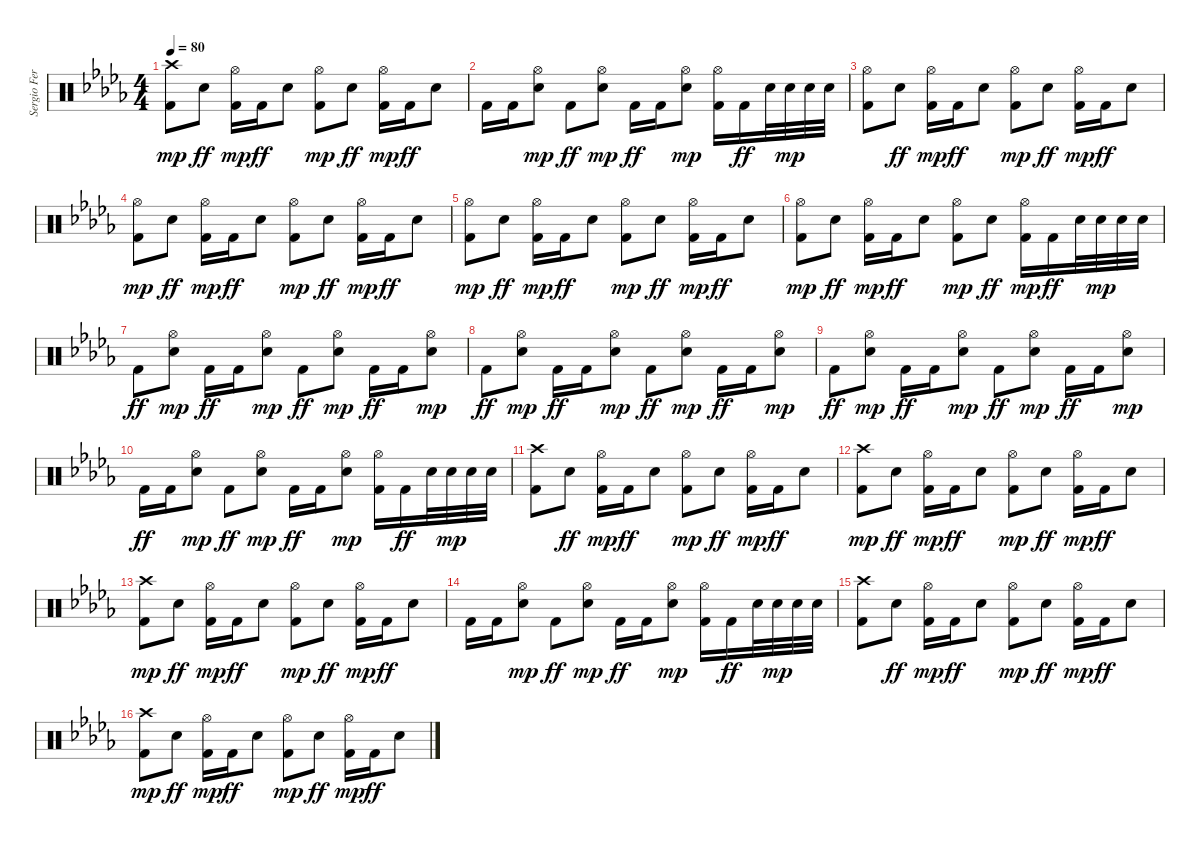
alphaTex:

\track ("Sergio Fernandez \"Taz\"" "Sergio Fer") {instrument percussion}
\staff {score}
\articulation defaults
\ts (4 4)
\tempo 80
\clef neutral
\ks bbminor
("Kick (hit) 2" "Crash high (hit)").8{dy mp} "Electric Snare (hit)".8{dy ff} ("Kick (hit) 2" "Hi-Hat (open)").16{dy mp} "Kick (hit) 2".16{dy ff} "Electric Snare (hit)".8 ("Kick (hit) 2" "Hi-Hat (open)").8{dy mp} "Electric Snare (hit)".8{dy ff} ("Kick (hit) 2" "Hi-Hat (open)").16{dy mp} "Kick (hit) 2".16{dy ff} "Electric Snare (hit)".8 |
"Kick (hit) 2".16 "Kick (hit) 2".16 ("Electric Snare (hit)" "Hi-Hat (open)").8{dy mp} "Kick (hit) 2".8{dy ff} ("Electric Snare (hit)" "Hi-Hat (open)").8{dy mp} "Kick (hit) 2".16{dy ff} "Kick (hit) 2".16 ("Electric Snare (hit)" "Hi-Hat (open)").8{dy mp} ("Kick (hit) 2" "Hi-Hat (open)").16 "Kick (hit) 2".16{dy ff} "Electric Snare (hit)".32 "Electric Snare (hit)".32{dy mp} "Electric Snare (hit)".32 "Electric Snare (hit)".32 |
("Kick (hit) 2" "Hi-Hat (open)").8 "Electric Snare (hit)".8{dy ff} ("Kick (hit) 2" "Hi-Hat (open)").16{dy mp} "Kick (hit) 2".16{dy ff} "Electric Snare (hit)".8 ("Kick (hit) 2" "Hi-Hat (open)").8{dy mp} "Electric Snare (hit)".8{dy ff} ("Kick (hit) 2" "Hi-Hat (open)").16{dy mp} "Kick (hit) 2".16{dy ff} "Electric Snare (hit)".8 |
("Kick (hit) 2" "Hi-Hat (open)").8{dy mp} "Electric Snare (hit)".8{dy ff} ("Kick (hit) 2" "Hi-Hat (open)").16{dy mp} "Kick (hit) 2".16{dy ff} "Electric Snare (hit)".8 ("Kick (hit) 2" "Hi-Hat (open)").8{dy mp} "Electric Snare (hit)".8{dy ff} ("Kick (hit) 2" "Hi-Hat (open)").16{dy mp} "Kick (hit) 2".16{dy ff} "Electric Snare (hit)".8 |
("Kick (hit) 2" "Hi-Hat (open)").8{dy mp} "Electric Snare (hit)".8{dy ff} ("Kick (hit) 2" "Hi-Hat (open)").16{dy mp} "Kick (hit) 2".16{dy ff} "Electric Snare (hit)".8 ("Kick (hit) 2" "Hi-Hat (open)").8{dy mp} "Electric Snare (hit)".8{dy ff} ("Kick (hit) 2" "Hi-Hat (open)").16{dy mp} "Kick (hit) 2".16{dy ff} "Electric Snare (hit)".8 |
("Kick (hit) 2" "Hi-Hat (open)").8{dy mp} "Electric Snare (hit)".8{dy ff} ("Kick (hit) 2" "Hi-Hat (open)").16{dy mp} "Kick (hit) 2".16{dy ff} "Electric Snare (hit)".8 ("Kick (hit) 2" "Hi-Hat (open)").8{dy mp} "Electric Snare (hit)".8{dy ff} ("Kick (hit) 2" "Hi-Hat (open)").16{dy mp} "Kick (hit) 2".16{dy ff} "Electric Snare (hit)".32 "Electric Snare (hit)".32{dy mp} "Electric Snare (hit)".32 "Electric Snare (hit)".32 |
"Kick (hit) 2".8{dy ff} ("Electric Snare (hit)" "Hi-Hat (open)").8{dy mp} "Kick (hit) 2".16{dy ff} "Kick (hit) 2".16 ("Electric Snare (hit)" "Hi-Hat (open)").8{dy mp} "Kick (hit) 2".8{dy ff} ("Electric Snare (hit)" "Hi-Hat (open)").8{dy mp} "Kick (hit) 2".16{dy ff} "Kick (hit) 2".16 ("Electric Snare (hit)" "Hi-Hat (open)").8{dy mp} |
"Kick (hit) 2".8{dy ff} ("Electric Snare (hit)" "Hi-Hat (open)").8{dy mp} "Kick (hit) 2".16{dy ff} "Kick (hit) 2".16 ("Electric Snare (hit)" "Hi-Hat (open)").8{dy mp} "Kick (hit) 2".8{dy ff} ("Electric Snare (hit)" "Hi-Hat (open)").8{dy mp} "Kick (hit) 2".16{dy ff} "Kick (hit) 2".16 ("Electric Snare (hit)" "Hi-Hat (open)").8{dy mp} |
"Kick (hit) 2".8{dy ff} ("Electric Snare (hit)" "Hi-Hat (open)").8{dy mp} "Kick (hit) 2".16{dy ff} "Kick (hit) 2".16 ("Electric Snare (hit)" "Hi-Hat (open)").8{dy mp} "Kick (hit) 2".8{dy ff} ("Electric Snare (hit)" "Hi-Hat (open)").8{dy mp} "Kick (hit) 2".16{dy ff} "Kick (hit) 2".16 ("Electric Snare (hit)" "Hi-Hat (open)").8{dy mp} |
"Kick (hit) 2".16{dy ff} "Kick (hit) 2".16 ("Electric Snare (hit)" "Hi-Hat (open)").8{dy mp} "Kick (hit) 2".8{dy ff} ("Electric Snare (hit)" "Hi-Hat (open)").8{dy mp} "Kick (hit) 2".16{dy ff} "Kick (hit) 2".16 ("Electric Snare (hit)" "Hi-Hat (open)").8{dy mp} ("Kick (hit) 2" "Hi-Hat (open)").16 "Kick (hit) 2".16{dy ff} "Electric Snare (hit)".32 "Electric Snare (hit)".32{dy mp} "Electric Snare (hit)".32 "Electric Snare (hit)".32 |
("Kick (hit) 2" "Crash high (hit)").8 "Electric Snare (hit)".8{dy ff} ("Kick (hit) 2" "Hi-Hat (open)").16{dy mp} "Kick (hit) 2".16{dy ff} "Electric Snare (hit)".8 ("Kick (hit) 2" "Hi-Hat (open)").8{dy mp} "Electric Snare (hit)".8{dy ff} ("Kick (hit) 2" "Hi-Hat (open)").16{dy mp} "Kick (hit) 2".16{dy ff} "Electric Snare (hit)".8 |
("Kick (hit) 2" "Crash high (hit)").8{dy mp} "Electric Snare (hit)".8{dy ff} ("Kick (hit) 2" "Hi-Hat (open)").16{dy mp} "Kick (hit) 2".16{dy ff} "Electric Snare (hit)".8 ("Kick (hit) 2" "Hi-Hat (open)").8{dy mp} "Electric Snare (hit)".8{dy ff} ("Kick (hit) 2" "Hi-Hat (open)").16{dy mp} "Kick (hit) 2".16{dy ff} "Electric Snare (hit)".8 |
("Kick (hit) 2" "Crash high (hit)").8{dy mp} "Electric Snare (hit)".8{dy ff} ("Kick (hit) 2" "Hi-Hat (open)").16{dy mp} "Kick (hit) 2".16{dy ff} "Electric Snare (hit)".8 ("Kick (hit) 2" "Hi-Hat (open)").8{dy mp} "Electric Snare (hit)".8{dy ff} ("Kick (hit) 2" "Hi-Hat (open)").16{dy mp} "Kick (hit) 2".16{dy ff} "Electric Snare (hit)".8 |
"Kick (hit) 2".16 "Kick (hit) 2".16 ("Electric Snare (hit)" "Hi-Hat (open)").8{dy mp} "Kick (hit) 2".8{dy ff} ("Electric Snare (hit)" "Hi-Hat (open)").8{dy mp} "Kick (hit) 2".16{dy ff} "Kick (hit) 2".16 ("Electric Snare (hit)" "Hi-Hat (open)").8{dy mp} ("Kick (hit) 2" "Hi-Hat (open)").16 "Kick (hit) 2".16{dy ff} "Electric Snare (hit)".32 "Electric Snare (hit)".32{dy mp} "Electric Snare (hit)".32 "Electric Snare (hit)".32 |
("Kick (hit) 2" "Crash high (hit)").8 "Electric Snare (hit)".8{dy ff} ("Kick (hit) 2" "Hi-Hat (open)").16{dy mp} "Kick (hit) 2".16{dy ff} "Electric Snare (hit)".8 ("Kick (hit) 2" "Hi-Hat (open)").8{dy mp} "Electric Snare (hit)".8{dy ff} ("Kick (hit) 2" "Hi-Hat (open)").16{dy mp} "Kick (hit) 2".16{dy ff} "Electric Snare (hit)".8 |
("Kick (hit) 2" "Crash high (hit)").8{dy mp} "Electric Snare (hit)".8{dy ff} ("Kick (hit) 2" "Hi-Hat (open)").16{dy mp} "Kick (hit) 2".16{dy ff} "Electric Snare (hit)".8 ("Kick (hit) 2" "Hi-Hat (open)").8{dy mp} "Electric Snare (hit)".8{dy ff} ("Kick (hit) 2" "Hi-Hat (open)").16{dy mp} "Kick (hit) 2".16{dy ff} "Electric Snare (hit)".8
